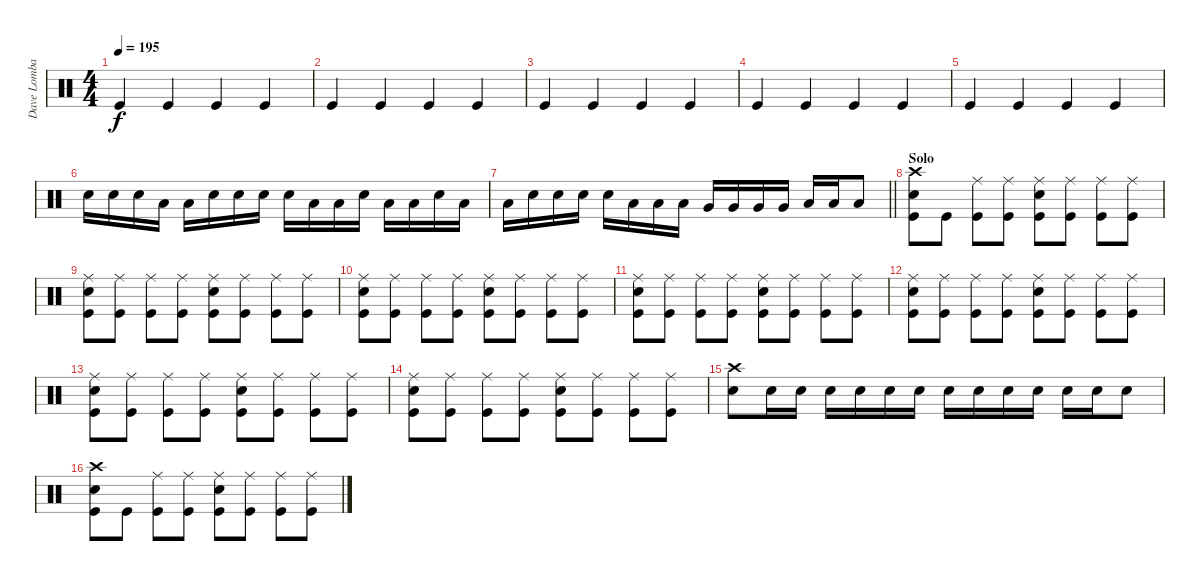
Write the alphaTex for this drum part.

\track ("Dave Lombardo" "Dave Lomba") {instrument percussion}
\staff {score}
\articulation defaults
\ts (4 4)
\tempo 195
\clef neutral
\ks c "Kick (hit)".4{dy f} "Kick (hit)".4 "Kick (hit)".4 "Kick (hit)".4
|
"Kick (hit)".4 "Kick (hit)".4 "Kick (hit)".4 "Kick (hit)".4 |
"Kick (hit)".4 "Kick (hit)".4 "Kick (hit)".4 "Kick (hit)".4 |
"Kick (hit)".4 "Kick (hit)".4 "Kick (hit)".4 "Kick (hit)".4 |
"Kick (hit)".4 "Kick (hit)".4 "Kick (hit)".4 "Kick (hit)".4 |
"Electric Snare (hit)".16 "Electric Snare (hit)".16 "Electric Snare (hit)".16 "Low Tom (hit)".16 "Low Tom (hit)".16 "Electric Snare (hit)".16 "Electric Snare (hit)".16 "Electric Snare (hit)".16 "Electric Snare (hit)".16 "Low Tom (hit)".16 "Low Tom (hit)".16 "Electric Snare (hit)".16 "Low Tom (hit)".16 "Low Tom (hit)".16 "Electric Snare (hit)".16 "Low Tom (hit)".16 |
\barLineRight lightlight "Low Tom (hit)".16 "Electric Snare (hit)".16 "Electric Snare (hit)".16 "Electric Snare (hit)".16 "Electric Snare (hit)".16 "Low Tom (hit)".16 "Low Tom (hit)".16 "Low Tom (hit)".16 "Very Low Tom (hit)".16 "Very Low Tom (hit)".16 "Very Low Tom (hit)".16 "Very Low Tom (hit)".16 "Low Floor Tom (hit)".16 "Low Floor Tom (hit)".16 "Low Floor Tom (hit)".8
|
\section ("" "Solo")
("Crash high (hit)" "Electric Snare (hit)" "Kick (hit)").8 "Kick (hit)".8 ("Ride (middle)" "Kick (hit)").8 ("Ride (middle)" "Kick (hit)").8 ("Ride (middle)" "Electric Snare (hit)" "Kick (hit)").8 ("Ride (middle)" "Kick (hit)").8 ("Ride (middle)" "Kick (hit)").8 ("Ride (middle)" "Kick (hit)").8 |
("Ride (middle)" "Electric Snare (hit)" "Kick (hit)").8 ("Ride (middle)" "Kick (hit)").8 ("Ride (middle)" "Kick (hit)").8 ("Ride (middle)" "Kick (hit)").8 ("Ride (middle)" "Electric Snare (hit)" "Kick (hit)").8 ("Ride (middle)" "Kick (hit)").8 ("Ride (middle)" "Kick (hit)").8 ("Ride (middle)" "Kick (hit)").8 |
("Ride (middle)" "Electric Snare (hit)" "Kick (hit)").8 ("Ride (middle)" "Kick (hit)").8 ("Ride (middle)" "Kick (hit)").8 ("Ride (middle)" "Kick (hit)").8 ("Ride (middle)" "Electric Snare (hit)" "Kick (hit)").8 ("Ride (middle)" "Kick (hit)").8 ("Ride (middle)" "Kick (hit)").8 ("Ride (middle)" "Kick (hit)").8 |
("Ride (middle)" "Electric Snare (hit)" "Kick (hit)").8 ("Ride (middle)" "Kick (hit)").8 ("Ride (middle)" "Kick (hit)").8 ("Ride (middle)" "Kick (hit)").8 ("Ride (middle)" "Electric Snare (hit)" "Kick (hit)").8 ("Ride (middle)" "Kick (hit)").8 ("Ride (middle)" "Kick (hit)").8 ("Ride (middle)" "Kick (hit)").8 |
("Ride (middle)" "Electric Snare (hit)" "Kick (hit)").8 ("Ride (middle)" "Kick (hit)").8 ("Ride (middle)" "Kick (hit)").8 ("Ride (middle)" "Kick (hit)").8 ("Ride (middle)" "Electric Snare (hit)" "Kick (hit)").8 ("Ride (middle)" "Kick (hit)").8 ("Ride (middle)" "Kick (hit)").8 ("Ride (middle)" "Kick (hit)").8 |
("Ride (middle)" "Electric Snare (hit)" "Kick (hit)").8 ("Ride (middle)" "Kick (hit)").8 ("Ride (middle)" "Kick (hit)").8 ("Ride (middle)" "Kick (hit)").8 ("Ride (middle)" "Electric Snare (hit)" "Kick (hit)").8 ("Ride (middle)" "Kick (hit)").8 ("Ride (middle)" "Kick (hit)").8 ("Ride (middle)" "Kick (hit)").8 |
("Ride (middle)" "Electric Snare (hit)" "Kick (hit)").8 ("Ride (middle)" "Kick (hit)").8 ("Ride (middle)" "Kick (hit)").8 ("Ride (middle)" "Kick (hit)").8 ("Ride (middle)" "Electric Snare (hit)" "Kick (hit)").8 ("Ride (middle)" "Kick (hit)").8 ("Ride (middle)" "Kick (hit)").8 ("Ride (middle)" "Kick (hit)").8 |
("Crash high (hit)" "Electric Snare (hit)").8 "Electric Snare (hit)".16 "Electric Snare (hit)".16 "Electric Snare (hit)".16 "Electric Snare (hit)".16 "Electric Snare (hit)".16 "Electric Snare (hit)".16 "Electric Snare (hit)".16 "Electric Snare (hit)".16 "Electric Snare (hit)".16 "Electric Snare (hit)".16 "Electric Snare (hit)".16 "Electric Snare (hit)".16 "Electric Snare (hit)".8 |
("Crash high (hit)" "Electric Snare (hit)" "Kick (hit)").8 "Kick (hit)".8 ("Ride (middle)" "Kick (hit)").8 ("Ride (middle)" "Kick (hit)").8 ("Ride (middle)" "Electric Snare (hit)" "Kick (hit)").8 ("Ride (middle)" "Kick (hit)").8 ("Ride (middle)" "Kick (hit)").8 ("Ride (middle)" "Kick (hit)").8
